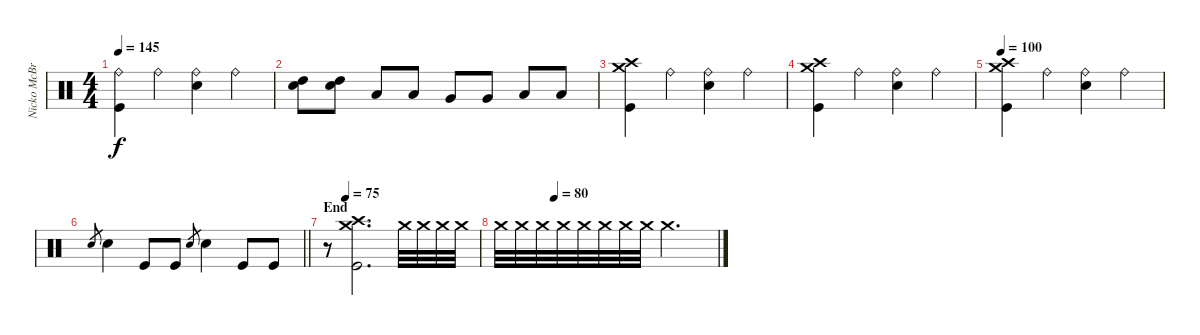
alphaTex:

\track ("Nicko McBrain" "Nicko McBr") {instrument percussion}
\staff {score}
\articulation defaults
\ts (4 4)
\tempo 145
\clef neutral
\ks c
("Ride (bell)" "Kick (hit)").4{dy f} "Ride (bell)".4 ("Ride (bell)" "Snare (hit) 2").4 "Ride (bell)".4 |
("High Tom (hit)" "Snare (hit) 2").8 ("High Tom (hit)" "Snare (hit) 2").8 "Low Tom (hit)".8 "Low Tom (hit)".8 "Very Low Tom (hit)".8 "Very Low Tom (hit)".8 "Low Floor Tom (hit)".8 "Low Floor Tom (hit)".8 |
("Crash medium (hit)" "Crash high (hit)" "Kick (hit)").4 "Ride (bell)".4 ("Ride (bell)" "Snare (hit) 2").4 "Ride (bell)".4 |
("Crash medium (hit)" "Crash high (hit)" "Kick (hit)").4 "Ride (bell)".4 ("Ride (bell)" "Snare (hit) 2").4 "Ride (bell)".4 |
\tempo 100
("Crash medium (hit)" "Crash high (hit)" "Kick (hit)").4 "Ride (bell)".4 ("Ride (bell)" "Snare (hit) 2").4 "Ride (bell)".4 |
\barLineRight lightlight "Snare (hit) 2".8{gr} "Snare (hit) 2".4 "Kick (hit)".8 "Kick (hit)".8 "Snare (hit) 2".8{gr} "Snare (hit) 2".4 "Kick (hit)".8 "Kick (hit)".8
|
\section ("" "End")
\tempo (75 0.125)
r.8 ("Crash medium (hit)" "Crash high (hit)" "Kick (hit)").2{d volume 0} "Crash medium (hit)".32{volume 10} "Crash medium (hit)".32 "Crash medium (hit)".32 "Crash medium (hit)".32 |
\tempo (80 0.25)
"Crash medium (hit)".32 "Crash medium (hit)".32 "Crash medium (hit)".32 "Crash medium (hit)".32 "Crash medium (hit)".32 "Crash medium (hit)".32 "Crash medium (hit)".32 "Crash medium (hit)".32 "Crash medium (hit)".2{d}
